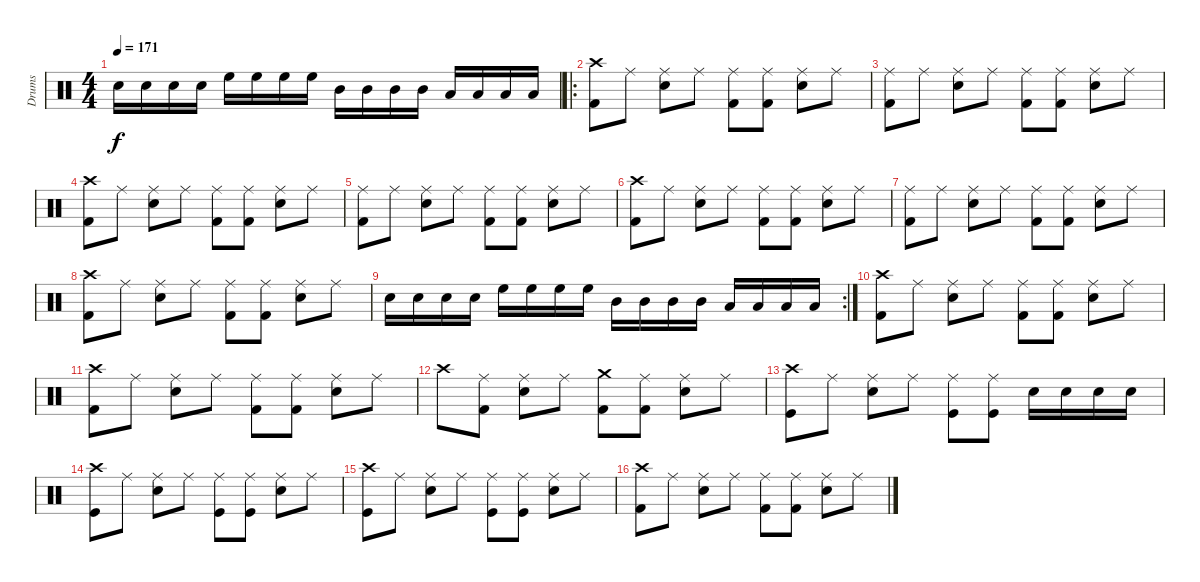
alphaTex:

\track ("Drums" "Drums") {instrument percussion}
\staff {score}
\articulation defaults
\ts (4 4)
\tempo 171
\clef neutral
\ks c "Electric Snare (hit)".16{dy f} "Electric Snare (hit)".16 "Electric Snare (hit)".16 "Electric Snare (hit)".16 "High Floor Tom (hit)".16 "High Floor Tom (hit)".16 "High Floor Tom (hit)".16 "High Floor Tom (hit)".16 "Mid Tom (hit)".16 "Mid Tom (hit)".16 "Mid Tom (hit)".16 "Mid Tom (hit)".16 "Low Tom (hit)".16 "Low Tom (hit)".16 "Low Tom (hit)".16 "Low Tom (hit)".16
|
\ro
("Crash high (hit)" "Kick (hit) 2").8 "Ride (middle)".8 ("Ride (middle)" "Electric Snare (hit)").8 "Ride (middle)".8 ("Ride (middle)" "Kick (hit) 2").8 ("Ride (middle)" "Kick (hit) 2").8 ("Ride (middle)" "Electric Snare (hit)").8 "Ride (middle)".8 |
("Ride (middle)" "Kick (hit) 2").8 "Ride (middle)".8 ("Ride (middle)" "Electric Snare (hit)").8 "Ride (middle)".8 ("Ride (middle)" "Kick (hit) 2").8 ("Ride (middle)" "Kick (hit) 2").8 ("Ride (middle)" "Electric Snare (hit)").8 "Ride (middle)".8 |
("Crash high (hit)" "Kick (hit) 2").8 "Ride (middle)".8 ("Ride (middle)" "Electric Snare (hit)").8 "Ride (middle)".8 ("Ride (middle)" "Kick (hit) 2").8 ("Ride (middle)" "Kick (hit) 2").8 ("Ride (middle)" "Electric Snare (hit)").8 "Ride (middle)".8 |
("Ride (middle)" "Kick (hit) 2").8 "Ride (middle)".8 ("Ride (middle)" "Electric Snare (hit)").8 "Ride (middle)".8 ("Ride (middle)" "Kick (hit) 2").8 ("Ride (middle)" "Kick (hit) 2").8 ("Ride (middle)" "Electric Snare (hit)").8 "Ride (middle)".8 |
("Crash high (hit)" "Kick (hit) 2").8 "Ride (middle)".8 ("Ride (middle)" "Electric Snare (hit)").8 "Ride (middle)".8 ("Ride (middle)" "Kick (hit) 2").8 ("Ride (middle)" "Kick (hit) 2").8 ("Ride (middle)" "Electric Snare (hit)").8 "Ride (middle)".8 |
("Ride (middle)" "Kick (hit) 2").8 "Ride (middle)".8 ("Ride (middle)" "Electric Snare (hit)").8 "Ride (middle)".8 ("Ride (middle)" "Kick (hit) 2").8 ("Ride (middle)" "Kick (hit) 2").8 ("Ride (middle)" "Electric Snare (hit)").8 "Ride (middle)".8 |
("Crash high (hit)" "Kick (hit) 2").8 "Ride (middle)".8 ("Ride (middle)" "Electric Snare (hit)").8 "Ride (middle)".8 ("Ride (middle)" "Kick (hit) 2").8 ("Ride (middle)" "Kick (hit) 2").8 ("Ride (middle)" "Electric Snare (hit)").8 "Ride (middle)".8 |
\rc 2 "Electric Snare (hit)".16 "Electric Snare (hit)".16 "Electric Snare (hit)".16 "Electric Snare (hit)".16 "High Floor Tom (hit)".16 "High Floor Tom (hit)".16 "High Floor Tom (hit)".16 "High Floor Tom (hit)".16 "Mid Tom (hit)".16 "Mid Tom (hit)".16 "Mid Tom (hit)".16 "Mid Tom (hit)".16 "Low Tom (hit)".16 "Low Tom (hit)".16 "Low Tom (hit)".16 "Low Tom (hit)".16
|
("Crash high (hit)" "Kick (hit) 2").8 "Ride (middle)".8 ("Ride (middle)" "Electric Snare (hit)").8 "Ride (middle)".8 ("Ride (middle)" "Kick (hit) 2").8 ("Ride (middle)" "Kick (hit) 2").8 ("Ride (middle)" "Electric Snare (hit)").8 "Ride (middle)".8 |
("Crash high (hit)" "Kick (hit) 2").8 "Ride (middle)".8 ("Ride (middle)" "Electric Snare (hit)").8 "Ride (middle)".8 ("Ride (middle)" "Kick (hit) 2").8 ("Ride (middle)" "Kick (hit) 2").8 ("Ride (middle)" "Electric Snare (hit)").8 "Ride (middle)".8 |
"Crash high (hit)".8 ("Ride (middle)" "Kick (hit) 2").8 ("Ride (middle)" "Electric Snare (hit)").8 "Ride (middle)".8 ("Crash medium (hit)" "Kick (hit) 2").8 ("Ride (middle)" "Kick (hit) 2").8 ("Ride (middle)" "Electric Snare (hit)").8 "Ride (middle)".8 |
("Crash high (hit)" "Kick (hit)").8 "Ride (middle)".8 ("Ride (middle)" "Electric Snare (hit)").8 "Ride (middle)".8 ("Ride (middle)" "Kick (hit)").8 ("Ride (middle)" "Kick (hit)").8 "Electric Snare (hit)".16 "Electric Snare (hit)".16 "Electric Snare (hit)".16 "Electric Snare (hit)".16 |
("Crash high (hit)" "Kick (hit)").8 "Ride (middle)".8 ("Ride (middle)" "Electric Snare (hit)").8 "Ride (middle)".8 ("Ride (middle)" "Kick (hit)").8 ("Ride (middle)" "Kick (hit)").8 ("Ride (middle)" "Electric Snare (hit)").8 "Ride (middle)".8 |
("Crash high (hit)" "Kick (hit)").8 "Ride (middle)".8 ("Ride (middle)" "Electric Snare (hit)").8 "Ride (middle)".8 ("Ride (middle)" "Kick (hit)").8 ("Ride (middle)" "Kick (hit)").8 ("Ride (middle)" "Electric Snare (hit)").8 "Ride (middle)".8 |
("Crash high (hit)" "Kick (hit) 2").8 "Ride (middle)".8 ("Ride (middle)" "Electric Snare (hit)").8 "Ride (middle)".8 ("Ride (middle)" "Kick (hit) 2").8 ("Ride (middle)" "Kick (hit) 2").8 ("Ride (middle)" "Electric Snare (hit)").8 "Ride (middle)".8
